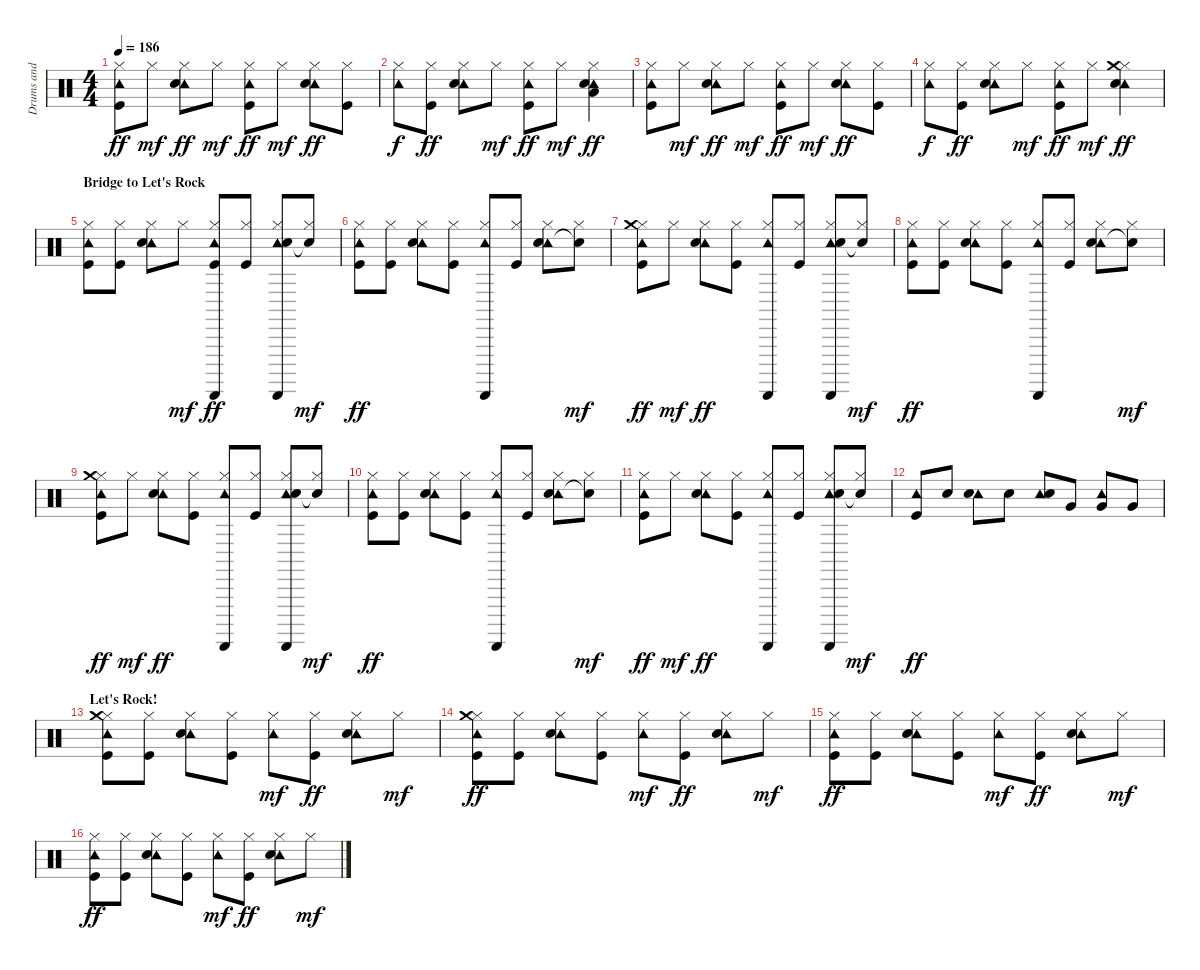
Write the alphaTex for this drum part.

\track ("Drums and Percs" "Drums and ") {instrument percussion}
\staff {score}
\articulation defaults
\ts (4 4)
\tempo 186
\clef neutral
\ks c
("Hi-Hat (closed)" "Tambourine (hit)" "Kick (hit)").8{dy ff} "Hi-Hat (closed)".8{dy mf} ("Hi-Hat (closed)" "Tambourine (hit)" "Electric Snare (hit)").8{dy ff} "Hi-Hat (closed)".8{dy mf} ("Hi-Hat (closed)" "Tambourine (hit)" "Kick (hit)").8{dy ff} "Hi-Hat (closed)".8{dy mf} ("Hi-Hat (closed)" "Tambourine (hit)" "Electric Snare (hit)").8{dy ff} ("Hi-Hat (closed)" "Kick (hit)").8 |
("Hi-Hat (closed)" "Tambourine (hit)").8{dy f} ("Hi-Hat (closed)" "Kick (hit)").8{dy ff} ("Hi-Hat (closed)" "Tambourine (hit)" "Electric Snare (hit)").8 "Hi-Hat (closed)".8{dy mf} ("Hi-Hat (closed)" "Tambourine (hit)" "Kick (hit)").8{dy ff} "Hi-Hat (closed)".8{dy mf} ("Hi-Hat (closed)" "Tambourine (hit)" "Low Tom (hit)" "Electric Snare (hit)").4{dy ff} |
("Hi-Hat (closed)" "Tambourine (hit)" "Kick (hit)").8 "Hi-Hat (closed)".8{dy mf} ("Hi-Hat (closed)" "Tambourine (hit)" "Electric Snare (hit)").8{dy ff} "Hi-Hat (closed)".8{dy mf} ("Hi-Hat (closed)" "Tambourine (hit)" "Kick (hit)").8{dy ff} "Hi-Hat (closed)".8{dy mf} ("Hi-Hat (closed)" "Tambourine (hit)" "Electric Snare (hit)").8{dy ff} ("Hi-Hat (closed)" "Kick (hit)").8 |
("Hi-Hat (closed)" "Tambourine (hit)").8{dy f} ("Hi-Hat (closed)" "Kick (hit)").8{dy ff} ("Hi-Hat (closed)" "Tambourine (hit)" "Electric Snare (hit)").8 "Hi-Hat (closed)".8{dy mf} ("Hi-Hat (closed)" "Tambourine (hit)" "Kick (hit)").8{dy ff} "Hi-Hat (closed)".8{dy mf} ("Hi-Hat (closed)" "Tambourine (hit)" "Crash medium (hit)" "Electric Snare (hit)").4{dy ff} |
\section ("" "Bridge to Let's Rock")
("Hi-Hat (closed)" "Tambourine (hit)" "Kick (hit)").8 ("Hi-Hat (closed)" "Kick (hit)").8 ("Hi-Hat (closed)" "Tambourine (hit)" "Electric Snare (hit)").8 "Hi-Hat (closed)".8{dy mf} ("Hi-Hat (closed)" "Tambourine (hit)" "Guiro (scrap-return)" "Kick (hit)").8{dy ff} ("Hi-Hat (closed)" "Kick (hit)").8 ("Hi-Hat (closed)" "Tambourine (hit)" "Guiro (scrap-return)" "Electric Snare (hit)").8 ("Hi-Hat (closed)" "Snare (hit)"{t}).8{dy mf} |
("Hi-Hat (closed)" "Tambourine (hit)" "Kick (hit)").8{dy ff} ("Hi-Hat (closed)" "Kick (hit)").8 ("Hi-Hat (closed)" "Tambourine (hit)" "Electric Snare (hit)").8 ("Hi-Hat (closed)" "Kick (hit)").8 ("Hi-Hat (closed)" "Tambourine (hit)" "Guiro (scrap-return)").8 ("Hi-Hat (closed)" "Kick (hit)").8 ("Hi-Hat (closed)" "Tambourine (hit)" "Electric Snare (hit)").8 ("Hi-Hat (closed)" "Snare (hit)"{t}).8{dy mf} |
("Hi-Hat (closed)" "Tambourine (hit)" "Crash medium (hit)" "Kick (hit)").8{dy ff} "Hi-Hat (closed)".8{dy mf} ("Hi-Hat (closed)" "Tambourine (hit)" "Electric Snare (hit)").8{dy ff} ("Hi-Hat (closed)" "Kick (hit)").8 ("Hi-Hat (closed)" "Tambourine (hit)" "Guiro (scrap-return)").8 ("Hi-Hat (closed)" "Kick (hit)").8 ("Hi-Hat (closed)" "Tambourine (hit)" "Guiro (scrap-return)" "Electric Snare (hit)").8 ("Hi-Hat (closed)" "Snare (hit)"{t}).8{dy mf} |
("Hi-Hat (closed)" "Tambourine (hit)" "Kick (hit)").8{dy ff} ("Hi-Hat (closed)" "Kick (hit)").8 ("Hi-Hat (closed)" "Tambourine (hit)" "Electric Snare (hit)").8 ("Hi-Hat (closed)" "Kick (hit)").8 ("Hi-Hat (closed)" "Tambourine (hit)" "Guiro (scrap-return)").8 ("Hi-Hat (closed)" "Kick (hit)").8 ("Hi-Hat (closed)" "Tambourine (hit)" "Electric Snare (hit)").8 ("Hi-Hat (closed)" "Snare (hit)"{t}).8{dy mf} |
("Hi-Hat (closed)" "Tambourine (hit)" "Crash medium (hit)" "Kick (hit)").8{dy ff} "Hi-Hat (closed)".8{dy mf} ("Hi-Hat (closed)" "Tambourine (hit)" "Electric Snare (hit)").8{dy ff} ("Hi-Hat (closed)" "Kick (hit)").8 ("Hi-Hat (closed)" "Tambourine (hit)" "Guiro (scrap-return)").8 ("Hi-Hat (closed)" "Kick (hit)").8 ("Hi-Hat (closed)" "Tambourine (hit)" "Guiro (scrap-return)" "Electric Snare (hit)").8 ("Hi-Hat (closed)" "Snare (hit)"{t}).8{dy mf} |
("Hi-Hat (closed)" "Tambourine (hit)" "Kick (hit)").8{dy ff} ("Hi-Hat (closed)" "Kick (hit)").8 ("Hi-Hat (closed)" "Tambourine (hit)" "Electric Snare (hit)").8 ("Hi-Hat (closed)" "Kick (hit)").8 ("Hi-Hat (closed)" "Tambourine (hit)" "Guiro (scrap-return)").8 ("Hi-Hat (closed)" "Kick (hit)").8 ("Hi-Hat (closed)" "Tambourine (hit)" "Electric Snare (hit)").8 ("Hi-Hat (closed)" "Snare (hit)"{t}).8{dy mf} |
("Hi-Hat (closed)" "Tambourine (hit)" "Kick (hit)").8{dy ff} "Hi-Hat (closed)".8{dy mf} ("Hi-Hat (closed)" "Tambourine (hit)" "Electric Snare (hit)").8{dy ff} ("Hi-Hat (closed)" "Kick (hit)").8 ("Hi-Hat (closed)" "Tambourine (hit)" "Guiro (scrap-return)").8 ("Hi-Hat (closed)" "Kick (hit)").8 ("Hi-Hat (closed)" "Tambourine (hit)" "Guiro (scrap-return)" "Electric Snare (hit)").8 ("Hi-Hat (closed)" "Snare (hit)"{t}).8{dy mf} |
("Tambourine (hit)" "Kick (hit)").8{dy ff} "Electric Snare (hit)".8 ("Tambourine (hit)" "Electric Snare (hit)").8 "Electric Snare (hit)".8 ("Tambourine (hit)" "Electric Snare (hit)").8 "Very Low Tom (hit)".8 ("Tambourine (hit)" "Very Low Tom (hit)").8 "Very Low Tom (hit)".8 |
\section ("" "Let's Rock!")
("Hi-Hat (closed)" "Tambourine (hit)" "Crash medium (hit)" "Kick (hit)").8 ("Hi-Hat (closed)" "Kick (hit)").8 ("Hi-Hat (closed)" "Tambourine (hit)" "Electric Snare (hit)").8 ("Hi-Hat (closed)" "Kick (hit)").8 ("Hi-Hat (closed)" "Tambourine (hit)").8{dy mf} ("Hi-Hat (closed)" "Kick (hit)").8{dy ff} ("Hi-Hat (closed)" "Tambourine (hit)" "Electric Snare (hit)").8 "Hi-Hat (closed)".8{dy mf} |
("Hi-Hat (closed)" "Tambourine (hit)" "Crash medium (hit)" "Kick (hit)").8{dy ff} ("Hi-Hat (closed)" "Kick (hit)").8 ("Hi-Hat (closed)" "Tambourine (hit)" "Electric Snare (hit)").8 ("Hi-Hat (closed)" "Kick (hit)").8 ("Hi-Hat (closed)" "Tambourine (hit)").8{dy mf} ("Hi-Hat (closed)" "Kick (hit)").8{dy ff} ("Hi-Hat (closed)" "Tambourine (hit)" "Electric Snare (hit)").8 "Hi-Hat (closed)".8{dy mf} |
("Hi-Hat (closed)" "Tambourine (hit)" "Kick (hit)").8{dy ff} ("Hi-Hat (closed)" "Kick (hit)").8 ("Hi-Hat (closed)" "Tambourine (hit)" "Electric Snare (hit)").8 ("Hi-Hat (closed)" "Kick (hit)").8 ("Hi-Hat (closed)" "Tambourine (hit)").8{dy mf} ("Hi-Hat (closed)" "Kick (hit)").8{dy ff} ("Hi-Hat (closed)" "Tambourine (hit)" "Electric Snare (hit)").8 "Hi-Hat (closed)".8{dy mf} |
("Hi-Hat (closed)" "Tambourine (hit)" "Kick (hit)").8{dy ff} ("Hi-Hat (closed)" "Kick (hit)").8 ("Hi-Hat (closed)" "Tambourine (hit)" "Electric Snare (hit)").8 ("Hi-Hat (closed)" "Kick (hit)").8 ("Hi-Hat (closed)" "Tambourine (hit)").8{dy mf} ("Hi-Hat (closed)" "Kick (hit)").8{dy ff} ("Hi-Hat (closed)" "Tambourine (hit)" "Electric Snare (hit)").8 "Hi-Hat (closed)".8{dy mf}
